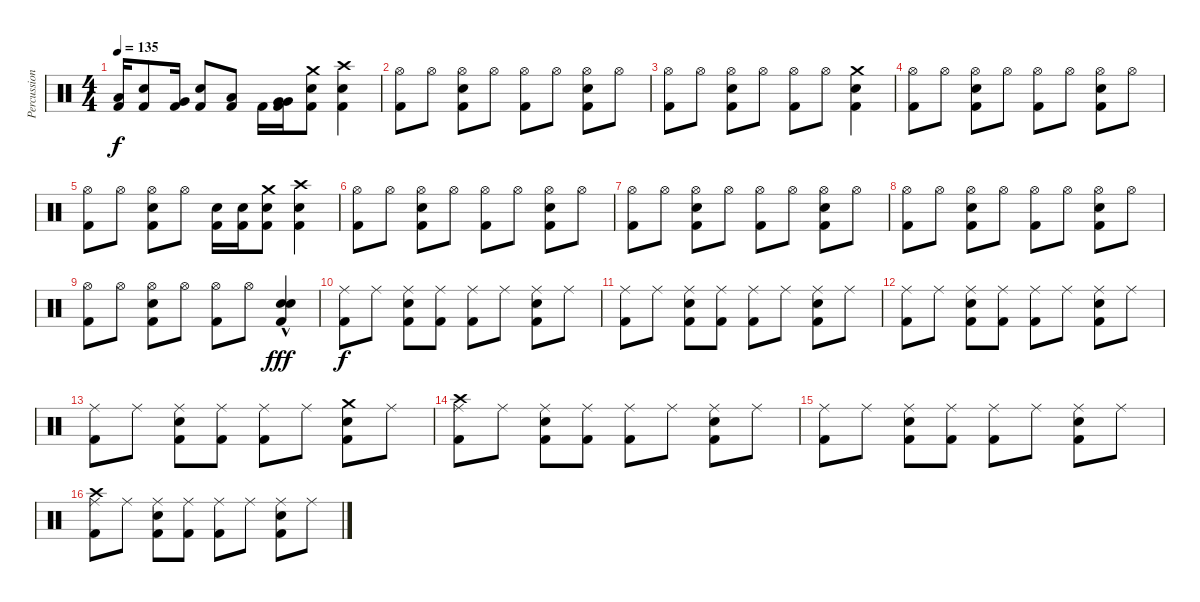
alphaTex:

\track ("Percussion" "Percussion") {instrument percussion}
\staff {score}
\articulation defaults
\ts (4 4)
\tempo 135
\clef neutral
\ks c
("Low Tom (hit)" "Kick (hit) 2").16{dy f} ("Electric Snare (hit)" "Kick (hit) 2").8 ("Very Low Tom (hit)" "Kick (hit) 2").16 ("Electric Snare (hit)" "Kick (hit) 2").8 ("Low Tom (hit)" "Kick (hit) 2").8 "Kick (hit) 2".16 ("Very Low Tom (hit)" "Very Low Tom (hit)" "Kick (hit) 2").16 ("Crash medium (hit)" "Electric Snare (hit)" "Kick (hit) 2").8 ("Crash high (hit)" "Electric Snare (hit)" "Kick (hit) 2").4 |
("Hi-Hat (open)" "Kick (hit) 2").8 "Hi-Hat (open)".8 ("Hi-Hat (open)" "Electric Snare (hit)" "Kick (hit) 2").8 "Hi-Hat (open)".8 ("Hi-Hat (open)" "Kick (hit) 2").8 "Hi-Hat (open)".8 ("Hi-Hat (open)" "Electric Snare (hit)" "Kick (hit) 2").8 "Hi-Hat (open)".8 |
("Hi-Hat (open)" "Kick (hit) 2").8 "Hi-Hat (open)".8 ("Hi-Hat (open)" "Electric Snare (hit)" "Kick (hit) 2").8 "Hi-Hat (open)".8 ("Hi-Hat (open)" "Kick (hit) 2").8 "Hi-Hat (open)".8 ("Crash medium (hit)" "Electric Snare (hit)" "Kick (hit) 2").4 |
("Hi-Hat (open)" "Kick (hit) 2").8 "Hi-Hat (open)".8 ("Hi-Hat (open)" "Electric Snare (hit)" "Kick (hit) 2").8 "Hi-Hat (open)".8 ("Hi-Hat (open)" "Kick (hit) 2").8 "Hi-Hat (open)".8 ("Hi-Hat (open)" "Electric Snare (hit)" "Kick (hit) 2").8 "Hi-Hat (open)".8 |
("Hi-Hat (open)" "Kick (hit) 2").8 "Hi-Hat (open)".8 ("Hi-Hat (open)" "Electric Snare (hit)" "Kick (hit) 2").8 "Hi-Hat (open)".8 ("Electric Snare (hit)" "Kick (hit) 2").16 ("Electric Snare (hit)" "Kick (hit) 2").16 ("Crash medium (hit)" "Electric Snare (hit)" "Kick (hit) 2").8 ("Crash high (hit)" "Electric Snare (hit)" "Kick (hit) 2").4 |
("Hi-Hat (open)" "Kick (hit) 2").8 "Hi-Hat (open)".8 ("Hi-Hat (open)" "Electric Snare (hit)" "Kick (hit) 2").8 "Hi-Hat (open)".8 ("Hi-Hat (open)" "Kick (hit) 2").8 "Hi-Hat (open)".8 ("Hi-Hat (open)" "Electric Snare (hit)" "Kick (hit) 2").8 "Hi-Hat (open)".8 |
("Hi-Hat (open)" "Kick (hit) 2").8 "Hi-Hat (open)".8 ("Hi-Hat (open)" "Electric Snare (hit)" "Kick (hit) 2").8 "Hi-Hat (open)".8 ("Hi-Hat (open)" "Kick (hit) 2").8 "Hi-Hat (open)".8 ("Hi-Hat (open)" "Electric Snare (hit)" "Kick (hit) 2").8 "Hi-Hat (open)".8 |
("Hi-Hat (open)" "Kick (hit) 2").8 "Hi-Hat (open)".8 ("Hi-Hat (open)" "Electric Snare (hit)" "Kick (hit) 2").8 "Hi-Hat (open)".8 ("Hi-Hat (open)" "Kick (hit) 2").8 "Hi-Hat (open)".8 ("Hi-Hat (open)" "Electric Snare (hit)" "Kick (hit) 2").8 "Hi-Hat (open)".8 |
("Hi-Hat (open)" "Kick (hit) 2").8 "Hi-Hat (open)".8 ("Hi-Hat (open)" "Electric Snare (hit)" "Kick (hit) 2").8 "Hi-Hat (open)".8 ("Hi-Hat (open)" "Kick (hit) 2").8 "Hi-Hat (open)".8 ("Electric Snare (hit)"{hac} "Electric Snare (hit)"{hac} "Kick (hit) 2"{hac}).4{dy fff} |
("Ride (middle)" "Kick (hit) 2").8{dy f} "Ride (middle)".8 ("Ride (middle)" "Electric Snare (hit)" "Kick (hit) 2").8 ("Ride (middle)" "Kick (hit) 2").8 ("Ride (middle)" "Kick (hit) 2").8 "Ride (middle)".8 ("Ride (middle)" "Electric Snare (hit)" "Kick (hit) 2").8 "Ride (middle)".8 |
("Ride (middle)" "Kick (hit) 2").8 "Ride (middle)".8 ("Ride (middle)" "Electric Snare (hit)" "Kick (hit) 2").8 ("Ride (middle)" "Kick (hit) 2").8 ("Ride (middle)" "Kick (hit) 2").8 "Ride (middle)".8 ("Ride (middle)" "Electric Snare (hit)" "Kick (hit) 2").8 "Ride (middle)".8 |
("Ride (middle)" "Kick (hit) 2").8 "Ride (middle)".8 ("Ride (middle)" "Electric Snare (hit)" "Kick (hit) 2").8 ("Ride (middle)" "Kick (hit) 2").8 ("Ride (middle)" "Kick (hit) 2").8 "Ride (middle)".8 ("Ride (middle)" "Electric Snare (hit)" "Kick (hit) 2").8 "Ride (middle)".8 |
("Ride (middle)" "Kick (hit) 2").8 "Ride (middle)".8 ("Ride (middle)" "Electric Snare (hit)" "Kick (hit) 2").8 ("Ride (middle)" "Kick (hit) 2").8 ("Ride (middle)" "Kick (hit) 2").8 "Ride (middle)".8 ("Crash medium (hit)" "Electric Snare (hit)" "Kick (hit) 2").8 "Ride (middle)".8 |
("Crash high (hit)" "Ride (middle)" "Kick (hit) 2").8 "Ride (middle)".8 ("Ride (middle)" "Electric Snare (hit)" "Kick (hit) 2").8 ("Ride (middle)" "Kick (hit) 2").8 ("Ride (middle)" "Kick (hit) 2").8 "Ride (middle)".8 ("Ride (middle)" "Electric Snare (hit)" "Kick (hit) 2").8 "Ride (middle)".8 |
("Ride (middle)" "Kick (hit) 2").8 "Ride (middle)".8 ("Ride (middle)" "Electric Snare (hit)" "Kick (hit) 2").8 ("Ride (middle)" "Kick (hit) 2").8 ("Ride (middle)" "Kick (hit) 2").8 "Ride (middle)".8 ("Ride (middle)" "Electric Snare (hit)" "Kick (hit) 2").8 "Ride (middle)".8 |
("Crash high (hit)" "Ride (middle)" "Kick (hit) 2").8 "Ride (middle)".8 ("Ride (middle)" "Electric Snare (hit)" "Kick (hit) 2").8 ("Ride (middle)" "Kick (hit) 2").8 ("Ride (middle)" "Kick (hit) 2").8 "Ride (middle)".8 ("Ride (middle)" "Electric Snare (hit)" "Kick (hit) 2").8 "Ride (middle)".8
